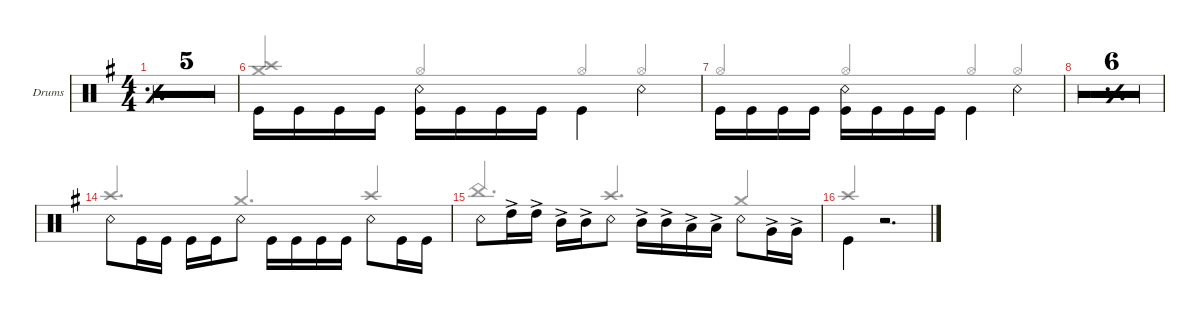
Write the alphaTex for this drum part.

\defaultSystemsLayout 4
\hideDynamics
\bracketExtendMode groupsimilarinstruments
\firstSystemTrackNameOrientation horizontal
\otherSystemsTrackNameOrientation horizontal
\track ("Drumkit" "Drums") {multiBarRest instrument percussion}
\staff {score}
\articulation defaults
\voice
\ts (4 4)
\tempo 164
\clef neutral
\simile simple
\scale
0.0334113
\ks eminor
|
\scale
0.0334113 |
\scale
0.0334113 |
\scale
0.0334113 |
\scale
0.0334113 |
\simile none
\scale
0.430822 "Kick (hit)".16{beam invert} "Kick (hit)".16 "Kick (hit)".16 "Kick (hit)".16 ("Kick (hit)" "Snare (rim shot)").16{beam invert} "Kick (hit)".16 "Kick (hit)".16 "Kick (hit)".16 "Kick (hit)".4{beam invert} "Snare (rim shot)".4{beam invert} |
\scale
0.361907 "Kick (hit)".16{beam invert} "Kick (hit)".16 "Kick (hit)".16 "Kick (hit)".16 ("Kick (hit)" "Snare (rim shot)").16{beam invert} "Kick (hit)".16 "Kick (hit)".16 "Kick (hit)".16 "Kick (hit)".4{beam invert} "Snare (rim shot)".4{beam invert} |
\simile simple
\scale
0.0345058 |
\scale
0.0345058 |
\scale
0.0345058 |
\scale
0.0345058 |
\scale
0.0345058 |
\scale
0.0345058 |
\simile none "Snare (rim shot)".8{beam invert} "Kick (hit)".16 "Kick (hit)".16 "Kick (hit)".16{beam invert} "Kick (hit)".16 "Snare (rim shot)".8 "Kick (hit)".16{beam invert} "Kick (hit)".16 "Kick (hit)".16 "Kick (hit)".16 "Snare (rim shot)".8{beam invert} "Kick (hit)".16 "Kick (hit)".16
|
"Snare (rim shot)".8{beam invert} "High Tom (hit)"{ac}.16 "High Tom (hit)"{ac}.16 "Mid Tom (hit)"{ac}.16{beam invert} "Mid Tom (hit)"{ac}.16 "Snare (rim shot)".8 "Mid Tom (hit)"{ac}.16{beam invert} "Mid Tom (hit)"{ac}.16 "Low Tom (hit)"{ac}.16 "Low Tom (hit)"{ac}.16 "Snare (rim shot)".8{beam invert} "Very Low Tom (hit)"{ac}.16 "Very Low Tom (hit)"{ac}.16 |
"Kick (hit)".4{beam invert} r.2{d}
\voice
\clef neutral
\ottava regular
\simile simple
\scale
0.0334113
\ks eminor
|
\scale
0.0334113 |
\scale
0.0334113 |
\scale
0.0334113 |
\scale
0.0334113 |
\simile none
\scale
0.430822 ("Crash high (hit)" "Crash medium (hit)").4{beam invert} "Hi-Hat (open)".4{beam invert} "Hi-Hat (open)".4{beam invert} "Hi-Hat (open)".4{beam invert} |
\scale
0.361907 "Hi-Hat (open)".4{beam invert} "Hi-Hat (open)".4{beam invert} "Hi-Hat (open)".4{beam invert} "Hi-Hat (open)".4{beam invert} |
\simile simple
\scale
0.0345058 |
\scale
0.0345058 |
\scale
0.0345058 |
\scale
0.0345058 |
\scale
0.0345058 |
\scale
0.0345058 |
\simile none "Crash high (hit)".4{d beam invert} "Crash medium (hit)".4{d beam invert} "Crash high (hit)".4{beam invert}
|
"China (hit)".4{d beam invert} "Crash high (hit)".4{d beam invert} "Crash medium (hit)".4{beam invert} |
"Crash high (hit)".4{beam invert} r.2{d}
